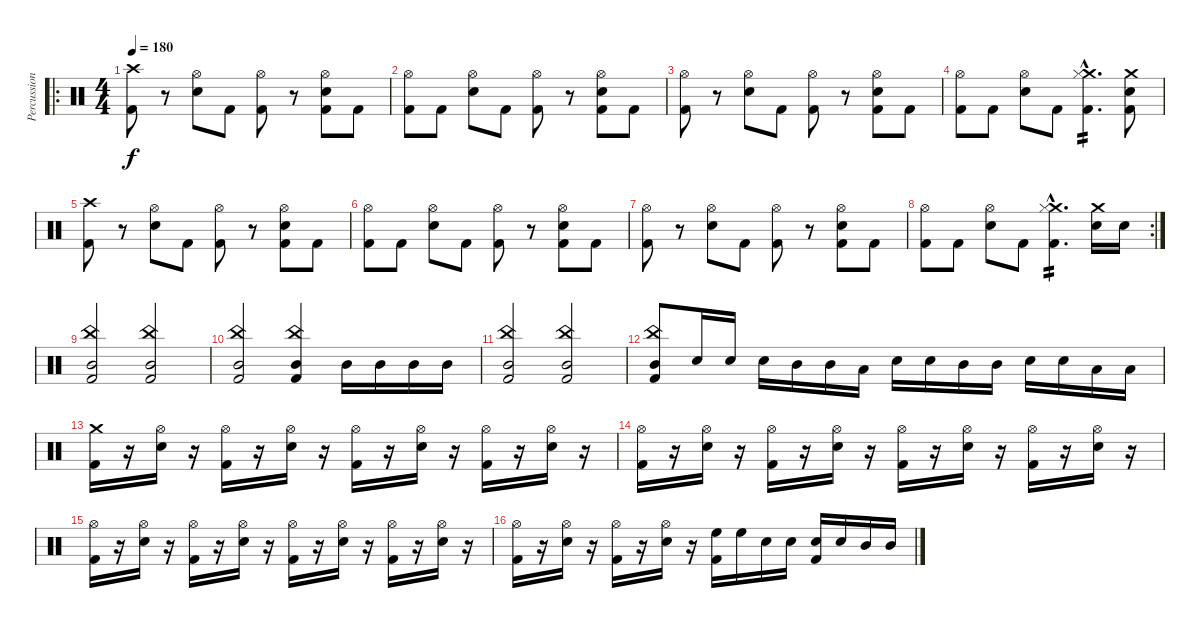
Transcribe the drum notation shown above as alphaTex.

\track ("Percussions" "Percussion") {instrument percussion}
\staff {score}
\articulation defaults
\ro
\ts (4 4)
\tempo 180
\clef neutral
\ks c
("Kick (hit) 2" "Crash high (hit)").8{dy f} r.8 ("Electric Snare (hit)" "Hi-Hat (open)").8 "Kick (hit) 2".8 ("Kick (hit) 2" "Hi-Hat (open)").8 r.8 ("Kick (hit) 2" "Electric Snare (hit)" "Hi-Hat (open)").8 "Kick (hit) 2".8 |
("Kick (hit) 2" "Hi-Hat (open)").8 "Kick (hit) 2".8 ("Electric Snare (hit)" "Hi-Hat (open)").8 "Kick (hit) 2".8 ("Kick (hit) 2" "Hi-Hat (open)").8 r.8 ("Kick (hit) 2" "Electric Snare (hit)" "Hi-Hat (open)").8 "Kick (hit) 2".8 |
("Kick (hit) 2" "Hi-Hat (open)").8 r.8 ("Electric Snare (hit)" "Hi-Hat (open)").8 "Kick (hit) 2".8 ("Kick (hit) 2" "Hi-Hat (open)").8 r.8 ("Kick (hit) 2" "Electric Snare (hit)" "Hi-Hat (open)").8 "Kick (hit) 2".8 |
("Kick (hit) 2" "Hi-Hat (open)").8 "Kick (hit) 2".8 ("Electric Snare (hit)" "Hi-Hat (open)").8 "Kick (hit) 2".8 ("Kick (hit) 2"{hac} "Crash medium (hit)"{hac} "Hi-Hat (closed)"{hac}).4{d tp 2} ("Kick (hit) 2" "Electric Snare (hit)" "Crash medium (hit)").8 |
("Kick (hit) 2" "Crash high (hit)").8 r.8 ("Electric Snare (hit)" "Hi-Hat (open)").8 "Kick (hit) 2".8 ("Kick (hit) 2" "Hi-Hat (open)").8 r.8 ("Kick (hit) 2" "Electric Snare (hit)" "Hi-Hat (open)").8 "Kick (hit) 2".8 |
("Kick (hit) 2" "Hi-Hat (open)").8 "Kick (hit) 2".8 ("Electric Snare (hit)" "Hi-Hat (open)").8 "Kick (hit) 2".8 ("Kick (hit) 2" "Hi-Hat (open)").8 r.8 ("Kick (hit) 2" "Electric Snare (hit)" "Hi-Hat (open)").8 "Kick (hit) 2".8 |
("Kick (hit) 2" "Hi-Hat (open)").8 r.8 ("Electric Snare (hit)" "Hi-Hat (open)").8 "Kick (hit) 2".8 ("Kick (hit) 2" "Hi-Hat (open)").8 r.8 ("Kick (hit) 2" "Electric Snare (hit)" "Hi-Hat (open)").8 "Kick (hit) 2".8 |
\rc 2
("Kick (hit) 2" "Hi-Hat (open)").8 "Kick (hit) 2".8 ("Electric Snare (hit)" "Hi-Hat (open)").8 "Kick (hit) 2".8 ("Kick (hit) 2"{hac} "Crash medium (hit)"{hac} "Hi-Hat (closed)"{hac}).4{d tp 2} ("Electric Snare (hit)" "Crash medium (hit)").16 "Electric Snare (hit)".16 |
("China (hit)" "Mid Tom (hit)" "Kick (hit) 2").2 ("China (hit)" "Mid Tom (hit)" "Kick (hit) 2").2 |
("China (hit)" "Mid Tom (hit)" "Kick (hit) 2").2 ("China (hit)" "Mid Tom (hit)" "Kick (hit) 2").4 "Mid Tom (hit)".16 "Mid Tom (hit)".16 "Mid Tom (hit)".16 "Mid Tom (hit)".16 |
("China (hit)" "Mid Tom (hit)" "Kick (hit) 2").2 ("China (hit)" "Mid Tom (hit)" "Kick (hit) 2").2 |
("China (hit)" "Mid Tom (hit)" "Kick (hit) 2").8 "Electric Snare (hit)".16 "Electric Snare (hit)".16 "Snare (hit) 2".16 "Mid Tom (hit)".16 "Mid Tom (hit)".16 "Low Tom (hit)".16 "Electric Snare (hit)".16 "Electric Snare (hit)".16 "Mid Tom (hit)".16 "Mid Tom (hit)".16 "Electric Snare (hit)".16 "Electric Snare (hit)".16 "Low Tom (hit)".16 "Low Tom (hit)".16 |
("Kick (hit) 2" "Crash medium (hit)").16 r.16 ("Electric Snare (hit)" "Hi-Hat (open)").16 r.16 ("Kick (hit) 2" "Hi-Hat (open)").16 r.16 ("Electric Snare (hit)" "Hi-Hat (open)").16 r.16 ("Kick (hit) 2" "Hi-Hat (open)").16 r.16 ("Electric Snare (hit)" "Hi-Hat (open)").16 r.16 ("Kick (hit) 2" "Hi-Hat (open)").16 r.16 ("Electric Snare (hit)" "Hi-Hat (open)").16 r.16 |
("Kick (hit) 2" "Hi-Hat (open)").16 r.16 ("Electric Snare (hit)" "Hi-Hat (open)").16 r.16 ("Kick (hit) 2" "Hi-Hat (open)").16 r.16 ("Electric Snare (hit)" "Hi-Hat (open)").16 r.16 ("Kick (hit) 2" "Hi-Hat (open)").16 r.16 ("Electric Snare (hit)" "Hi-Hat (open)").16 r.16 ("Kick (hit) 2" "Hi-Hat (open)").16 r.16 ("Electric Snare (hit)" "Hi-Hat (open)").16 r.16 |
("Kick (hit) 2" "Hi-Hat (open)").16 r.16 ("Electric Snare (hit)" "Hi-Hat (open)").16 r.16 ("Kick (hit) 2" "Hi-Hat (open)").16 r.16 ("Electric Snare (hit)" "Hi-Hat (open)").16 r.16 ("Kick (hit) 2" "Hi-Hat (open)").16 r.16 ("Electric Snare (hit)" "Hi-Hat (open)").16 r.16 ("Kick (hit) 2" "Hi-Hat (open)").16 r.16 ("Electric Snare (hit)" "Hi-Hat (open)").16 r.16 |
("Kick (hit) 2" "Hi-Hat (open)").16 r.16 ("Electric Snare (hit)" "Hi-Hat (open)").16 r.16 ("Kick (hit) 2" "Hi-Hat (open)").16 r.16 ("Electric Snare (hit)" "Hi-Hat (open)").16 r.16 ("Kick (hit) 2" "High Floor Tom (hit)").16 "High Floor Tom (hit)".16 "Electric Snare (hit)".16 "Electric Snare (hit)".16 ("Kick (hit) 2" "Snare (hit) 2").16 "Snare (hit) 2".16 "Mid Tom (hit)".16 "Mid Tom (hit)".16
